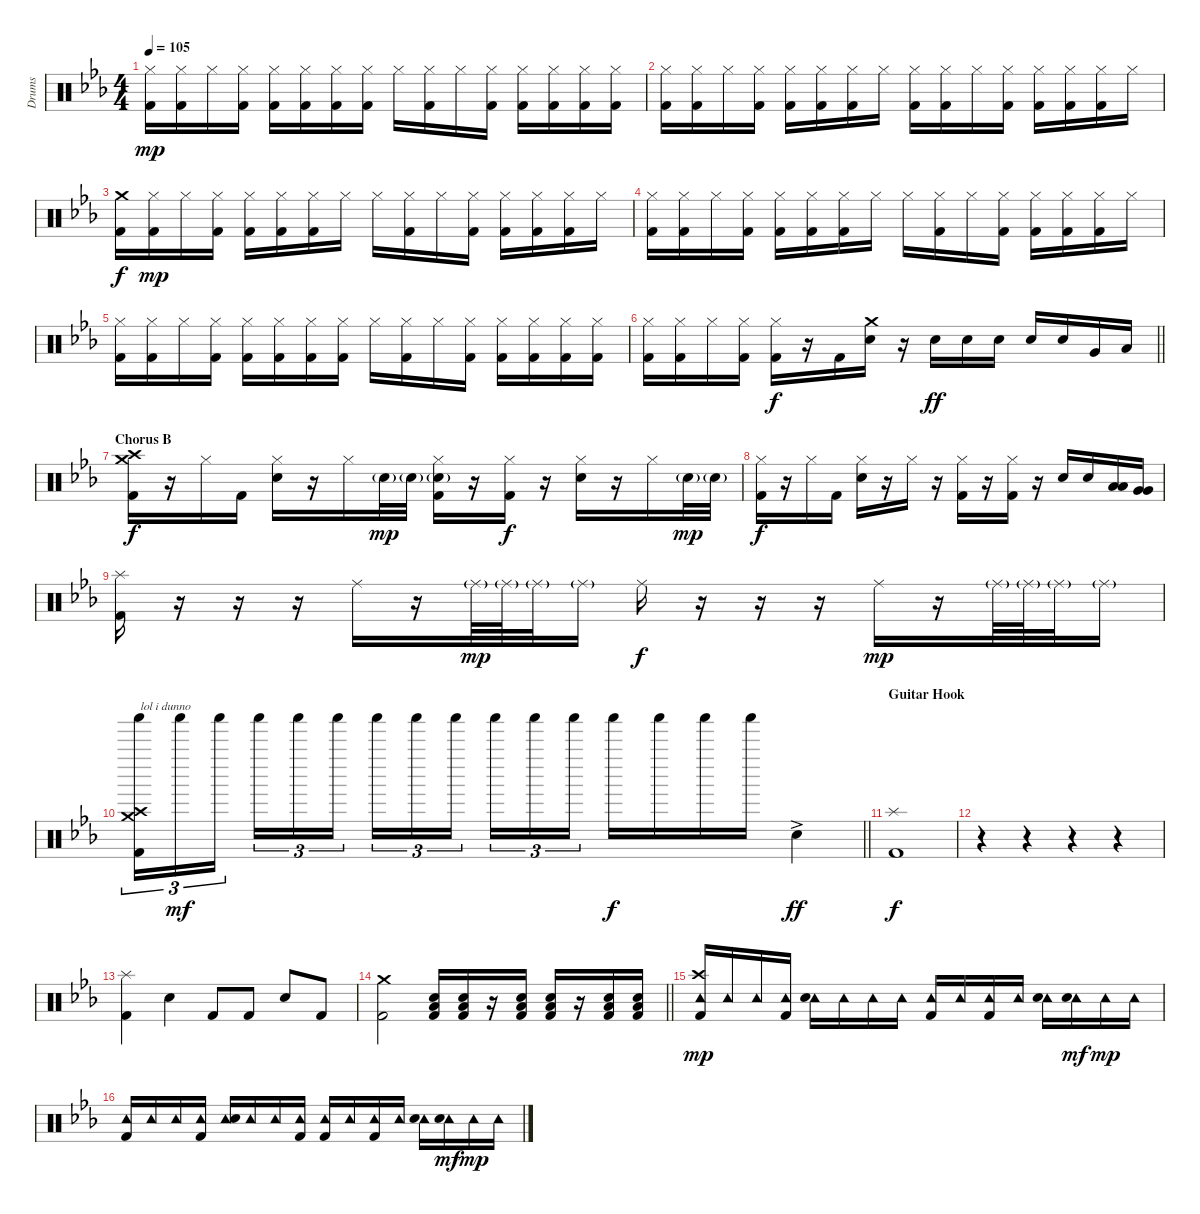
\track ("Drums" "Drums") {instrument percussion}
\staff {score}
\articulation defaults
\ts (4 4)
\tempo 105
\clef neutral
\ks eb
("Hi-Hat (closed)" "Kick (hit) 2").16{dy mp} ("Hi-Hat (closed)" "Kick (hit) 2").16 "Hi-Hat (closed)".16 ("Hi-Hat (closed)" "Kick (hit) 2").16 ("Hi-Hat (closed)" "Kick (hit) 2").16 ("Hi-Hat (closed)" "Kick (hit) 2").16 ("Hi-Hat (closed)" "Kick (hit) 2").16 ("Hi-Hat (closed)" "Kick (hit) 2").16 "Hi-Hat (closed)".16 ("Hi-Hat (closed)" "Kick (hit) 2").16 "Hi-Hat (closed)".16 ("Hi-Hat (closed)" "Kick (hit) 2").16 ("Hi-Hat (closed)" "Kick (hit) 2").16 ("Hi-Hat (closed)" "Kick (hit) 2").16 ("Hi-Hat (closed)" "Kick (hit) 2").16 ("Hi-Hat (closed)" "Kick (hit) 2").16 |
("Hi-Hat (closed)" "Kick (hit) 2").16 ("Hi-Hat (closed)" "Kick (hit) 2").16 "Hi-Hat (closed)".16 ("Hi-Hat (closed)" "Kick (hit) 2").16 ("Hi-Hat (closed)" "Kick (hit) 2").16 ("Hi-Hat (closed)" "Kick (hit) 2").16 ("Hi-Hat (closed)" "Kick (hit) 2").16 "Hi-Hat (closed)".16 ("Hi-Hat (closed)" "Kick (hit) 2").16 ("Hi-Hat (closed)" "Kick (hit) 2").16 "Hi-Hat (closed)".16 ("Hi-Hat (closed)" "Kick (hit) 2").16 ("Hi-Hat (closed)" "Kick (hit) 2").16 ("Hi-Hat (closed)" "Kick (hit) 2").16 ("Hi-Hat (closed)" "Kick (hit) 2").16 "Hi-Hat (closed)".16 |
("Crash medium (hit)" "Kick (hit) 2").16{dy f} ("Hi-Hat (closed)" "Kick (hit) 2").16{dy mp} "Hi-Hat (closed)".16 ("Hi-Hat (closed)" "Kick (hit) 2").16 ("Hi-Hat (closed)" "Kick (hit) 2").16 ("Hi-Hat (closed)" "Kick (hit) 2").16 ("Hi-Hat (closed)" "Kick (hit) 2").16 "Hi-Hat (closed)".16 "Hi-Hat (closed)".16 ("Hi-Hat (closed)" "Kick (hit) 2").16 "Hi-Hat (closed)".16 ("Hi-Hat (closed)" "Kick (hit) 2").16 ("Hi-Hat (closed)" "Kick (hit) 2").16 ("Hi-Hat (closed)" "Kick (hit) 2").16 ("Hi-Hat (closed)" "Kick (hit) 2").16 "Hi-Hat (closed)".16 |
("Hi-Hat (closed)" "Kick (hit) 2").16 ("Hi-Hat (closed)" "Kick (hit) 2").16 "Hi-Hat (closed)".16 ("Hi-Hat (closed)" "Kick (hit) 2").16 ("Hi-Hat (closed)" "Kick (hit) 2").16 ("Hi-Hat (closed)" "Kick (hit) 2").16 ("Hi-Hat (closed)" "Kick (hit) 2").16 "Hi-Hat (closed)".16 "Hi-Hat (closed)".16 ("Hi-Hat (closed)" "Kick (hit) 2").16 "Hi-Hat (closed)".16 ("Hi-Hat (closed)" "Kick (hit) 2").16 ("Hi-Hat (closed)" "Kick (hit) 2").16 ("Hi-Hat (closed)" "Kick (hit) 2").16 ("Hi-Hat (closed)" "Kick (hit) 2").16 "Hi-Hat (closed)".16 |
("Hi-Hat (closed)" "Kick (hit) 2").16 ("Hi-Hat (closed)" "Kick (hit) 2").16 "Hi-Hat (closed)".16 ("Hi-Hat (closed)" "Kick (hit) 2").16 ("Hi-Hat (closed)" "Kick (hit) 2").16 ("Hi-Hat (closed)" "Kick (hit) 2").16 ("Hi-Hat (closed)" "Kick (hit) 2").16 ("Hi-Hat (closed)" "Kick (hit) 2").16 "Hi-Hat (closed)".16 ("Hi-Hat (closed)" "Kick (hit) 2").16 "Hi-Hat (closed)".16 ("Hi-Hat (closed)" "Kick (hit) 2").16 ("Hi-Hat (closed)" "Kick (hit) 2").16 ("Hi-Hat (closed)" "Kick (hit) 2").16 ("Hi-Hat (closed)" "Kick (hit) 2").16 ("Hi-Hat (closed)" "Kick (hit) 2").16 |
\barLineRight lightlight
("Hi-Hat (closed)" "Kick (hit) 2").16 ("Hi-Hat (closed)" "Kick (hit) 2").16 "Hi-Hat (closed)".16 ("Hi-Hat (closed)" "Kick (hit) 2").16 ("Hi-Hat (closed)" "Kick (hit) 2").16{dy f} r.16 "Kick (hit) 2".16 ("Crash medium (hit)" "Electric Snare (hit)").16 r.16 "Electric Snare (hit)".16{dy ff} "Electric Snare (hit)".16 "Electric Snare (hit)".16 "Electric Snare (hit)".16 "Electric Snare (hit)".16 "Very Low Tom (hit)".16 "Low Floor Tom (hit)".16 |
\section ("" "Chorus B")
("Crash medium (hit)" "Crash high (hit)" "Kick (hit) 2").16{dy f} r.16 "Hi-Hat (closed)".16 "Kick (hit) 2".16 ("Hi-Hat (closed)" "Electric Snare (hit)").16 r.16 "Hi-Hat (closed)".16 "Electric Snare (hit)"{g}.32{dy mp} "Electric Snare (hit)"{g}.32 ("Hi-Hat (closed)" "Electric Snare (hit)"{g} "Kick (hit) 2").16 r.16 ("Hi-Hat (closed)" "Kick (hit) 2").16{dy f} r.16 ("Hi-Hat (closed)" "Electric Snare (hit)").16 r.16 "Hi-Hat (closed)".16 "Electric Snare (hit)"{g}.32{dy mp} "Electric Snare (hit)"{g}.32 |
("Hi-Hat (closed)" "Kick (hit) 2").16{dy f} r.16 "Hi-Hat (closed)".16 "Kick (hit) 2".16 ("Hi-Hat (closed)" "Electric Snare (hit)").16 r.16 "Hi-Hat (closed)".16 r.16 ("Hi-Hat (closed)" "Kick (hit) 2").16 r.16 ("Hi-Hat (closed)" "Kick (hit) 2").16 r.16 "Electric Snare (hit)".16 "Electric Snare (hit)".16 ("Low Tom (hit)" "Low Tom (hit)").16{bd 60} ("Very Low Tom (hit)" "Very Low Tom (hit)").16{bd 60} |
("Splash (hit)" "Kick (hit) 2").16 r.16 r.16 r.16 "Ride (middle)".16 r.16 "Ride (middle)"{g}.64{dy mp} "Ride (middle)"{g}.64 "Ride (middle)"{g}.32 "Ride (middle)"{g}.16 "Ride (middle)".16{dy f} r.16 r.16 r.16 "Ride (middle)".16{dy mp} r.16 "Ride (middle)"{g}.64 "Ride (middle)"{g}.64 "Ride (middle)"{g}.32 "Ride (middle)"{g}.16 |
\barLineRight lightlight
("Crash high (hit)" "Shaker (hit)" "Crash medium (hit)" "Kick (hit) 2").16{tu (3 2) txt "lol i dunno"} "Shaker (hit)".16{tu (3 2) dy mf} "Shaker (hit)".16{tu (3 2) beam splitsecondary} "Shaker (hit)".16{tu (3 2)} "Shaker (hit)".16{tu (3 2)} "Shaker (hit)".16{tu (3 2)} "Shaker (hit)".16{tu (3 2)} "Shaker (hit)".16{tu (3 2)} "Shaker (hit)".16{tu (3 2) beam splitsecondary} "Shaker (hit)".16{tu (3 2)} "Shaker (hit)".16{tu (3 2)} "Shaker (hit)".16{tu (3 2)} "Shaker (hit)".16{dy f} "Shaker (hit)".16 "Shaker (hit)".16 "Shaker (hit)".16 "Electric Snare (hit)"{ac}.4{dy ff} |
\section ("" "Guitar Hook")
("Splash (hit)" "Kick (hit) 2").1{dy f} |
r.4 r.4 r.4 r.4 |
("Splash (hit)" "Kick (hit) 2").4 "Electric Snare (hit)".4 "Kick (hit) 2".8 "Kick (hit) 2".8 "Electric Snare (hit)".8 "Kick (hit) 2".8 |
\barLineRight lightlight
("Crash medium (hit)" "Kick (hit) 2").2 ("Low Tom (hit)" "Electric Snare (hit)" "Kick (hit) 2").16 ("Low Tom (hit)" "Electric Snare (hit)" "Kick (hit) 2").16 r.16 ("Low Tom (hit)" "Electric Snare (hit)" "Kick (hit) 2").16 ("Low Tom (hit)" "Electric Snare (hit)" "Kick (hit) 2").16 r.16 ("Low Tom (hit)" "Electric Snare (hit)" "Kick (hit) 2").16 ("Low Tom (hit)" "Electric Snare (hit)" "Kick (hit) 2").16 |
("Crash high (hit)" "Tambourine (hit)" "Kick (hit) 2").16{dy mp} "Tambourine (hit)".16 "Tambourine (hit)".16 ("Tambourine (hit)" "Kick (hit) 2").16 ("Tambourine (hit)" "Electric Snare (hit)").16 "Tambourine (hit)".16 "Tambourine (hit)".16 "Tambourine (hit)".16 ("Tambourine (hit)" "Kick (hit) 2").16 "Tambourine (hit)".16 ("Tambourine (hit)" "Kick (hit) 2").16 "Tambourine (hit)".16 ("Tambourine (hit)" "Electric Snare (hit)").16 ("Tambourine (hit)" "Electric Snare (hit)").16{dy mf} "Tambourine (hit)".16{dy mp} "Tambourine (hit)".16 |
("Tambourine (hit)" "Kick (hit) 2").16 "Tambourine (hit)".16 "Tambourine (hit)".16 ("Tambourine (hit)" "Kick (hit) 2").16 ("Tambourine (hit)" "Electric Snare (hit)").16 "Tambourine (hit)".16 "Tambourine (hit)".16 ("Tambourine (hit)" "Kick (hit) 2").16 ("Tambourine (hit)" "Kick (hit) 2").16 "Tambourine (hit)".16 ("Tambourine (hit)" "Kick (hit) 2").16 "Tambourine (hit)".16 ("Tambourine (hit)" "Electric Snare (hit)").16 ("Tambourine (hit)" "Electric Snare (hit)").16{dy mf} "Tambourine (hit)".16{dy mp} "Tambourine (hit)".16
